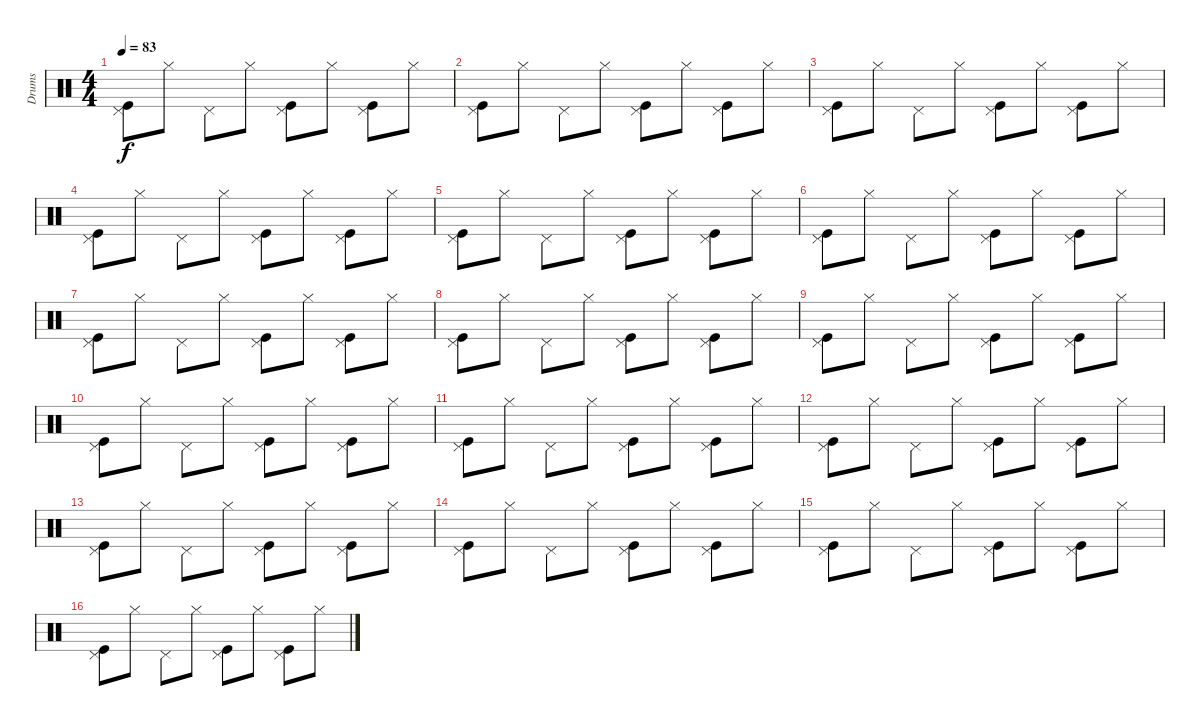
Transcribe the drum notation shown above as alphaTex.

\track ("Drums" "Drums") {instrument percussion}
\staff {score}
\articulation defaults
\ts (4 4)
\tempo 83
\clef neutral
\ks c
("Pedal Hi-Hat (hit)" "Kick (hit)").8{dy f} "Hi-Hat (closed)".8 "Pedal Hi-Hat (hit)".8 "Hi-Hat (closed)".8 ("Pedal Hi-Hat (hit)" "Kick (hit)").8 "Hi-Hat (closed)".8 ("Pedal Hi-Hat (hit)" "Kick (hit)").8 "Hi-Hat (closed)".8 |
("Pedal Hi-Hat (hit)" "Kick (hit)").8 "Hi-Hat (closed)".8 "Pedal Hi-Hat (hit)".8 "Hi-Hat (closed)".8 ("Pedal Hi-Hat (hit)" "Kick (hit)").8 "Hi-Hat (closed)".8 ("Pedal Hi-Hat (hit)" "Kick (hit)").8 "Hi-Hat (closed)".8 |
("Pedal Hi-Hat (hit)" "Kick (hit)").8 "Hi-Hat (closed)".8 "Pedal Hi-Hat (hit)".8 "Hi-Hat (closed)".8 ("Pedal Hi-Hat (hit)" "Kick (hit)").8 "Hi-Hat (closed)".8 ("Pedal Hi-Hat (hit)" "Kick (hit)").8 "Hi-Hat (closed)".8 |
("Pedal Hi-Hat (hit)" "Kick (hit)").8 "Hi-Hat (closed)".8 "Pedal Hi-Hat (hit)".8 "Hi-Hat (closed)".8 ("Pedal Hi-Hat (hit)" "Kick (hit)").8 "Hi-Hat (closed)".8 ("Pedal Hi-Hat (hit)" "Kick (hit)").8 "Hi-Hat (closed)".8 |
("Pedal Hi-Hat (hit)" "Kick (hit)").8 "Hi-Hat (closed)".8 "Pedal Hi-Hat (hit)".8 "Hi-Hat (closed)".8 ("Pedal Hi-Hat (hit)" "Kick (hit)").8 "Hi-Hat (closed)".8 ("Pedal Hi-Hat (hit)" "Kick (hit)").8 "Hi-Hat (closed)".8 |
("Pedal Hi-Hat (hit)" "Kick (hit)").8 "Hi-Hat (closed)".8 "Pedal Hi-Hat (hit)".8 "Hi-Hat (closed)".8 ("Pedal Hi-Hat (hit)" "Kick (hit)").8 "Hi-Hat (closed)".8 ("Pedal Hi-Hat (hit)" "Kick (hit)").8 "Hi-Hat (closed)".8 |
("Pedal Hi-Hat (hit)" "Kick (hit)").8 "Hi-Hat (closed)".8 "Pedal Hi-Hat (hit)".8 "Hi-Hat (closed)".8 ("Pedal Hi-Hat (hit)" "Kick (hit)").8 "Hi-Hat (closed)".8 ("Pedal Hi-Hat (hit)" "Kick (hit)").8 "Hi-Hat (closed)".8 |
("Pedal Hi-Hat (hit)" "Kick (hit)").8 "Hi-Hat (closed)".8 "Pedal Hi-Hat (hit)".8 "Hi-Hat (closed)".8 ("Pedal Hi-Hat (hit)" "Kick (hit)").8 "Hi-Hat (closed)".8 ("Pedal Hi-Hat (hit)" "Kick (hit)").8 "Hi-Hat (closed)".8 |
("Pedal Hi-Hat (hit)" "Kick (hit)").8 "Hi-Hat (closed)".8 "Pedal Hi-Hat (hit)".8 "Hi-Hat (closed)".8 ("Pedal Hi-Hat (hit)" "Kick (hit)").8 "Hi-Hat (closed)".8 ("Pedal Hi-Hat (hit)" "Kick (hit)").8 "Hi-Hat (closed)".8 |
("Pedal Hi-Hat (hit)" "Kick (hit)").8 "Hi-Hat (closed)".8 "Pedal Hi-Hat (hit)".8 "Hi-Hat (closed)".8 ("Pedal Hi-Hat (hit)" "Kick (hit)").8 "Hi-Hat (closed)".8 ("Pedal Hi-Hat (hit)" "Kick (hit)").8 "Hi-Hat (closed)".8 |
("Pedal Hi-Hat (hit)" "Kick (hit)").8 "Hi-Hat (closed)".8 "Pedal Hi-Hat (hit)".8 "Hi-Hat (closed)".8 ("Pedal Hi-Hat (hit)" "Kick (hit)").8 "Hi-Hat (closed)".8 ("Pedal Hi-Hat (hit)" "Kick (hit)").8 "Hi-Hat (closed)".8 |
("Pedal Hi-Hat (hit)" "Kick (hit)").8 "Hi-Hat (closed)".8 "Pedal Hi-Hat (hit)".8 "Hi-Hat (closed)".8 ("Pedal Hi-Hat (hit)" "Kick (hit)").8 "Hi-Hat (closed)".8 ("Pedal Hi-Hat (hit)" "Kick (hit)").8 "Hi-Hat (closed)".8 |
("Pedal Hi-Hat (hit)" "Kick (hit)").8 "Hi-Hat (closed)".8 "Pedal Hi-Hat (hit)".8 "Hi-Hat (closed)".8 ("Pedal Hi-Hat (hit)" "Kick (hit)").8 "Hi-Hat (closed)".8 ("Pedal Hi-Hat (hit)" "Kick (hit)").8 "Hi-Hat (closed)".8 |
("Pedal Hi-Hat (hit)" "Kick (hit)").8 "Hi-Hat (closed)".8 "Pedal Hi-Hat (hit)".8 "Hi-Hat (closed)".8 ("Pedal Hi-Hat (hit)" "Kick (hit)").8 "Hi-Hat (closed)".8 ("Pedal Hi-Hat (hit)" "Kick (hit)").8 "Hi-Hat (closed)".8 |
("Pedal Hi-Hat (hit)" "Kick (hit)").8 "Hi-Hat (closed)".8 "Pedal Hi-Hat (hit)".8 "Hi-Hat (closed)".8 ("Pedal Hi-Hat (hit)" "Kick (hit)").8 "Hi-Hat (closed)".8 ("Pedal Hi-Hat (hit)" "Kick (hit)").8 "Hi-Hat (closed)".8 |
("Pedal Hi-Hat (hit)" "Kick (hit)").8 "Hi-Hat (closed)".8 "Pedal Hi-Hat (hit)".8 "Hi-Hat (closed)".8 ("Pedal Hi-Hat (hit)" "Kick (hit)").8 "Hi-Hat (closed)".8 ("Pedal Hi-Hat (hit)" "Kick (hit)").8 "Hi-Hat (closed)".8
